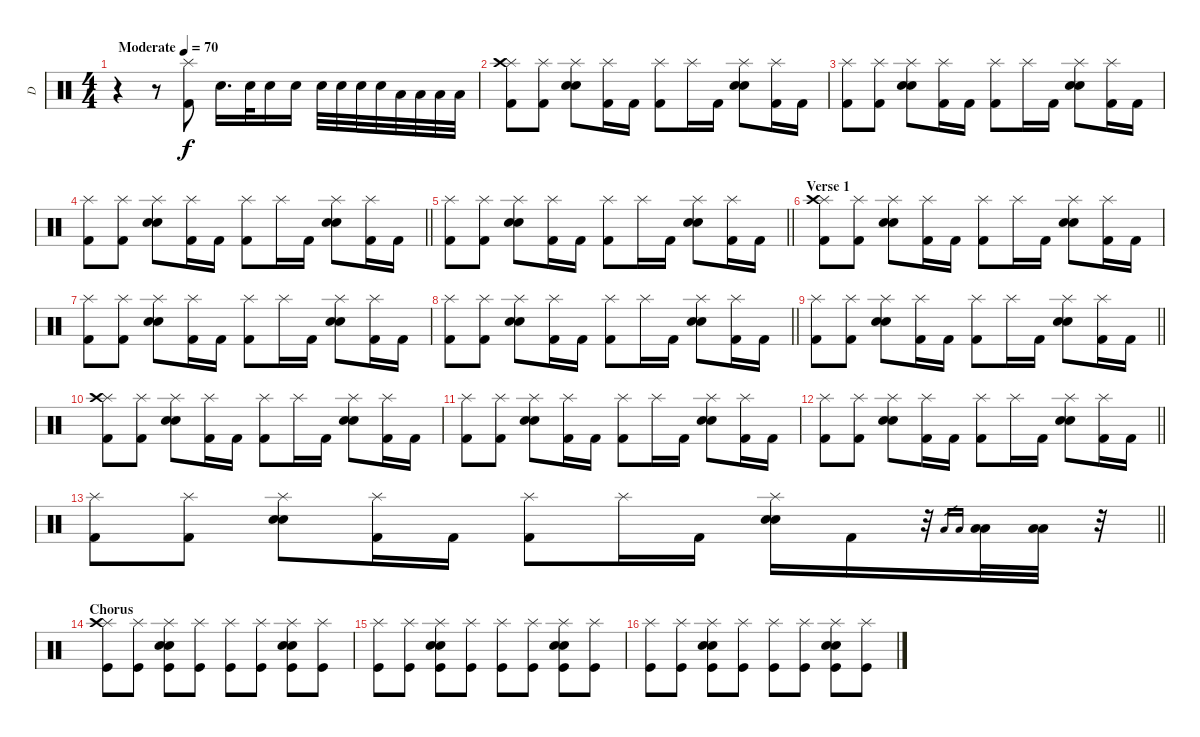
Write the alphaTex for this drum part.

\track ("D" "D") {instrument percussion}
\staff {score}
\articulation defaults
\ts (4 4)
\tempo (70 "Moderate")
\clef neutral
\ks c
r.4{dy f} r.8 ("Splash (hit)" "Kick (hit) 2").8 "Electric Snare (hit)".16{d} "Electric Snare (hit)".32 "Electric Snare (hit)".16 "Electric Snare (hit)".16 "Electric Snare (hit)".32 "Electric Snare (hit)".32 "Electric Snare (hit)".32 "Electric Snare (hit)".32 "Low Tom (hit)".32 "Low Tom (hit)".32 "Low Tom (hit)".32 "Low Tom (hit)".32 |
("Splash (hit)" "Crash high (hit)" "Kick (hit) 2").8 ("Splash (hit)" "Kick (hit) 2").8 ("Splash (hit)" "Electric Snare (hit)" "Electric Snare (hit)").8 ("Splash (hit)" "Kick (hit) 2").16 "Kick (hit) 2".16 ("Splash (hit)" "Kick (hit) 2").8 "Splash (hit)".16 "Kick (hit) 2".16 ("Splash (hit)" "Electric Snare (hit)" "Electric Snare (hit)").8 ("Splash (hit)" "Kick (hit) 2").16 "Kick (hit) 2".16 |
("Splash (hit)" "Kick (hit) 2").8 ("Splash (hit)" "Kick (hit) 2").8 ("Splash (hit)" "Electric Snare (hit)" "Electric Snare (hit)").8 ("Splash (hit)" "Kick (hit) 2").16 "Kick (hit) 2".16 ("Splash (hit)" "Kick (hit) 2").8 "Splash (hit)".16 "Kick (hit) 2".16 ("Splash (hit)" "Electric Snare (hit)" "Electric Snare (hit)").8 ("Splash (hit)" "Kick (hit) 2").16 "Kick (hit) 2".16 |
\barLineRight lightlight
("Splash (hit)" "Kick (hit) 2").8 ("Splash (hit)" "Kick (hit) 2").8 ("Splash (hit)" "Electric Snare (hit)" "Electric Snare (hit)").8 ("Splash (hit)" "Kick (hit) 2").16 "Kick (hit) 2".16 ("Splash (hit)" "Kick (hit) 2").8 "Splash (hit)".16 "Kick (hit) 2".16 ("Splash (hit)" "Electric Snare (hit)" "Electric Snare (hit)").8 ("Splash (hit)" "Kick (hit) 2").16 "Kick (hit) 2".16 |
\section ("" "")
\barLineRight lightlight
("Splash (hit)" "Kick (hit) 2").8 ("Splash (hit)" "Kick (hit) 2").8 ("Splash (hit)" "Electric Snare (hit)" "Electric Snare (hit)").8 ("Splash (hit)" "Kick (hit) 2").16 "Kick (hit) 2".16 ("Splash (hit)" "Kick (hit) 2").8 "Splash (hit)".16 "Kick (hit) 2".16 ("Splash (hit)" "Electric Snare (hit)" "Electric Snare (hit)").8 ("Splash (hit)" "Kick (hit) 2").16 "Kick (hit) 2".16 |
\section ("" "Verse 1")
("Splash (hit)" "Crash high (hit)" "Kick (hit) 2").8 ("Splash (hit)" "Kick (hit) 2").8 ("Splash (hit)" "Electric Snare (hit)" "Electric Snare (hit)").8 ("Splash (hit)" "Kick (hit) 2").16 "Kick (hit) 2".16 ("Splash (hit)" "Kick (hit) 2").8 "Splash (hit)".16 "Kick (hit) 2".16 ("Splash (hit)" "Electric Snare (hit)" "Electric Snare (hit)").8 ("Splash (hit)" "Kick (hit) 2").16 "Kick (hit) 2".16 |
("Splash (hit)" "Kick (hit) 2").8 ("Splash (hit)" "Kick (hit) 2").8 ("Splash (hit)" "Electric Snare (hit)" "Electric Snare (hit)").8 ("Splash (hit)" "Kick (hit) 2").16 "Kick (hit) 2".16 ("Splash (hit)" "Kick (hit) 2").8 "Splash (hit)".16 "Kick (hit) 2".16 ("Splash (hit)" "Electric Snare (hit)" "Electric Snare (hit)").8 ("Splash (hit)" "Kick (hit) 2").16 "Kick (hit) 2".16 |
\barLineRight lightlight
("Splash (hit)" "Kick (hit) 2").8 ("Splash (hit)" "Kick (hit) 2").8 ("Splash (hit)" "Electric Snare (hit)" "Electric Snare (hit)").8 ("Splash (hit)" "Kick (hit) 2").16 "Kick (hit) 2".16 ("Splash (hit)" "Kick (hit) 2").8 "Splash (hit)".16 "Kick (hit) 2".16 ("Splash (hit)" "Electric Snare (hit)" "Electric Snare (hit)").8 ("Splash (hit)" "Kick (hit) 2").16 "Kick (hit) 2".16 |
\barLineRight lightlight
("Splash (hit)" "Kick (hit) 2").8 ("Splash (hit)" "Kick (hit) 2").8 ("Splash (hit)" "Electric Snare (hit)" "Electric Snare (hit)").8 ("Splash (hit)" "Kick (hit) 2").16 "Kick (hit) 2".16 ("Splash (hit)" "Kick (hit) 2").8 "Splash (hit)".16 "Kick (hit) 2".16 ("Splash (hit)" "Electric Snare (hit)" "Electric Snare (hit)").8 ("Splash (hit)" "Kick (hit) 2").16 "Kick (hit) 2".16 |
("Splash (hit)" "Crash high (hit)" "Kick (hit) 2").8 ("Splash (hit)" "Kick (hit) 2").8 ("Splash (hit)" "Electric Snare (hit)" "Electric Snare (hit)").8 ("Splash (hit)" "Kick (hit) 2").16 "Kick (hit) 2".16 ("Splash (hit)" "Kick (hit) 2").8 "Splash (hit)".16 "Kick (hit) 2".16 ("Splash (hit)" "Electric Snare (hit)" "Electric Snare (hit)").8 ("Splash (hit)" "Kick (hit) 2").16 "Kick (hit) 2".16 |
("Splash (hit)" "Kick (hit) 2").8 ("Splash (hit)" "Kick (hit) 2").8 ("Splash (hit)" "Electric Snare (hit)" "Electric Snare (hit)").8 ("Splash (hit)" "Kick (hit) 2").16 "Kick (hit) 2".16 ("Splash (hit)" "Kick (hit) 2").8 "Splash (hit)".16 "Kick (hit) 2".16 ("Splash (hit)" "Electric Snare (hit)" "Electric Snare (hit)").8 ("Splash (hit)" "Kick (hit) 2").16 "Kick (hit) 2".16 |
\barLineRight lightlight
("Splash (hit)" "Kick (hit) 2").8 ("Splash (hit)" "Kick (hit) 2").8 ("Splash (hit)" "Electric Snare (hit)" "Electric Snare (hit)").8 ("Splash (hit)" "Kick (hit) 2").16 "Kick (hit) 2".16 ("Splash (hit)" "Kick (hit) 2").8 "Splash (hit)".16 "Kick (hit) 2".16 ("Splash (hit)" "Electric Snare (hit)" "Electric Snare (hit)").8 ("Splash (hit)" "Kick (hit) 2").16 "Kick (hit) 2".16 |
\barLineRight lightlight
("Splash (hit)" "Kick (hit) 2").8 ("Splash (hit)" "Kick (hit) 2").8 ("Splash (hit)" "Electric Snare (hit)" "Electric Snare (hit)").8 ("Splash (hit)" "Kick (hit) 2").16 "Kick (hit) 2".16 ("Splash (hit)" "Kick (hit) 2").8 "Splash (hit)".16 "Kick (hit) 2".16 ("Splash (hit)" "Electric Snare (hit)" "Electric Snare (hit)").16 "Kick (hit) 2".16 r.32 "Low Tom (hit)".16{gr} "Low Floor Tom (hit)".16{gr} ("Low Tom (hit)" "Low Floor Tom (hit)").32 ("Low Tom (hit)" "Low Floor Tom (hit)").32 r.32 |
\section ("" "Chorus")
("Splash (hit)" "Crash high (hit)" "Kick (hit)").8 ("Splash (hit)" "Kick (hit)").8 ("Splash (hit)" "Electric Snare (hit)" "Electric Snare (hit)" "Kick (hit)").8 ("Splash (hit)" "Kick (hit)").8 ("Splash (hit)" "Kick (hit)").8 ("Splash (hit)" "Kick (hit)").8 ("Splash (hit)" "Electric Snare (hit)" "Electric Snare (hit)" "Kick (hit)").8 ("Splash (hit)" "Kick (hit)").8 |
("Splash (hit)" "Kick (hit)").8 ("Splash (hit)" "Kick (hit)").8 ("Splash (hit)" "Electric Snare (hit)" "Electric Snare (hit)" "Kick (hit)").8 ("Splash (hit)" "Kick (hit)").8 ("Splash (hit)" "Kick (hit)").8 ("Splash (hit)" "Kick (hit)").8 ("Splash (hit)" "Electric Snare (hit)" "Electric Snare (hit)" "Kick (hit)").8 ("Splash (hit)" "Kick (hit)").8 |
("Splash (hit)" "Kick (hit)").8 ("Splash (hit)" "Kick (hit)").8 ("Splash (hit)" "Electric Snare (hit)" "Electric Snare (hit)" "Kick (hit)").8 ("Splash (hit)" "Kick (hit)").8 ("Splash (hit)" "Kick (hit)").8 ("Splash (hit)" "Kick (hit)").8 ("Splash (hit)" "Electric Snare (hit)" "Electric Snare (hit)" "Kick (hit)").8 ("Splash (hit)" "Kick (hit)").8
